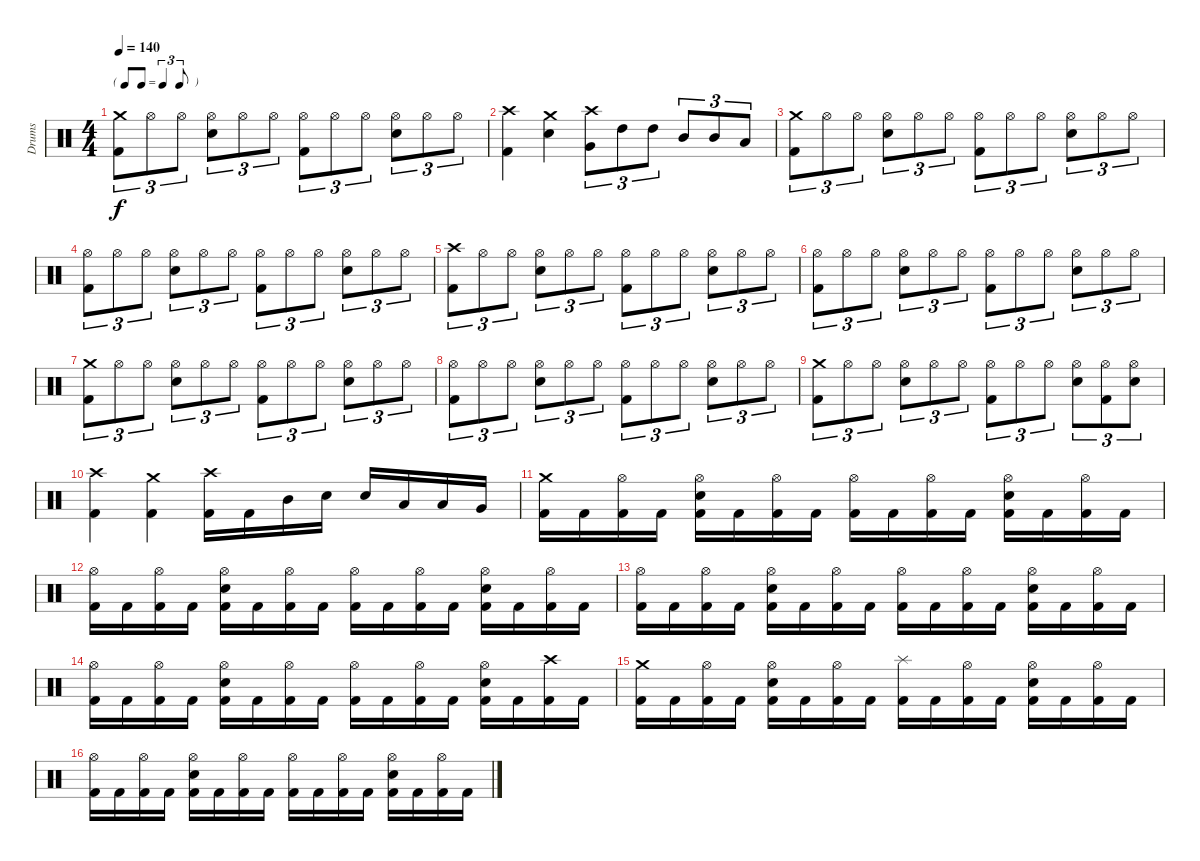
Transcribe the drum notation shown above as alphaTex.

\track ("Drums" "Drums") {instrument percussion}
\staff {score}
\articulation defaults
\ts (4 4)
\tf triplet8th
\tempo 140
\clef neutral
\ks c
("Crash medium (hit)" "Kick (hit) 2").8{tu (3 2) dy f} "Hi-Hat (open)".8{tu (3 2)} "Hi-Hat (open)".8{tu (3 2)} ("Hi-Hat (open)" "Electric Snare (hit)").8{tu (3 2)} "Hi-Hat (open)".8{tu (3 2)} "Hi-Hat (open)".8{tu (3 2)} ("Hi-Hat (open)" "Kick (hit) 2").8{tu (3 2)} "Hi-Hat (open)".8{tu (3 2)} "Hi-Hat (open)".8{tu (3 2)} ("Hi-Hat (open)" "Electric Snare (hit)").8{tu (3 2)} "Hi-Hat (open)".8{tu (3 2)} "Hi-Hat (open)".8{tu (3 2)} |
("Crash high (hit)" "Kick (hit) 2").4 ("Crash medium (hit)" "Electric Snare (hit)").4 ("Crash high (hit)" "Very Low Tom (hit)").8{tu (3 2)} "High Tom (hit)".8{tu (3 2)} "High Tom (hit)".8{tu (3 2)} "Mid Tom (hit)".8{tu (3 2)} "Mid Tom (hit)".8{tu (3 2)} "Low Tom (hit)".8{tu (3 2)} |
("Crash medium (hit)" "Kick (hit) 2").8{tu (3 2)} "Hi-Hat (open)".8{tu (3 2)} "Hi-Hat (open)".8{tu (3 2)} ("Hi-Hat (open)" "Electric Snare (hit)").8{tu (3 2)} "Hi-Hat (open)".8{tu (3 2)} "Hi-Hat (open)".8{tu (3 2)} ("Hi-Hat (open)" "Kick (hit) 2").8{tu (3 2)} "Hi-Hat (open)".8{tu (3 2)} "Hi-Hat (open)".8{tu (3 2)} ("Hi-Hat (open)" "Electric Snare (hit)").8{tu (3 2)} "Hi-Hat (open)".8{tu (3 2)} "Hi-Hat (open)".8{tu (3 2)} |
("Hi-Hat (open)" "Kick (hit) 2").8{tu (3 2)} "Hi-Hat (open)".8{tu (3 2)} "Hi-Hat (open)".8{tu (3 2)} ("Hi-Hat (open)" "Electric Snare (hit)").8{tu (3 2)} "Hi-Hat (open)".8{tu (3 2)} "Hi-Hat (open)".8{tu (3 2)} ("Hi-Hat (open)" "Kick (hit) 2").8{tu (3 2)} "Hi-Hat (open)".8{tu (3 2)} "Hi-Hat (open)".8{tu (3 2)} ("Hi-Hat (open)" "Electric Snare (hit)").8{tu (3 2)} "Hi-Hat (open)".8{tu (3 2)} "Hi-Hat (open)".8{tu (3 2)} |
("Crash high (hit)" "Kick (hit) 2").8{tu (3 2)} "Hi-Hat (open)".8{tu (3 2)} "Hi-Hat (open)".8{tu (3 2)} ("Hi-Hat (open)" "Electric Snare (hit)").8{tu (3 2)} "Hi-Hat (open)".8{tu (3 2)} "Hi-Hat (open)".8{tu (3 2)} ("Hi-Hat (open)" "Kick (hit) 2").8{tu (3 2)} "Hi-Hat (open)".8{tu (3 2)} "Hi-Hat (open)".8{tu (3 2)} ("Hi-Hat (open)" "Electric Snare (hit)").8{tu (3 2)} "Hi-Hat (open)".8{tu (3 2)} "Hi-Hat (open)".8{tu (3 2)} |
("Hi-Hat (open)" "Kick (hit) 2").8{tu (3 2)} "Hi-Hat (open)".8{tu (3 2)} "Hi-Hat (open)".8{tu (3 2)} ("Hi-Hat (open)" "Electric Snare (hit)").8{tu (3 2)} "Hi-Hat (open)".8{tu (3 2)} "Hi-Hat (open)".8{tu (3 2)} ("Hi-Hat (open)" "Kick (hit) 2").8{tu (3 2)} "Hi-Hat (open)".8{tu (3 2)} "Hi-Hat (open)".8{tu (3 2)} ("Hi-Hat (open)" "Electric Snare (hit)").8{tu (3 2)} "Hi-Hat (open)".8{tu (3 2)} "Hi-Hat (open)".8{tu (3 2)} |
("Crash medium (hit)" "Kick (hit) 2").8{tu (3 2)} "Hi-Hat (open)".8{tu (3 2)} "Hi-Hat (open)".8{tu (3 2)} ("Hi-Hat (open)" "Electric Snare (hit)").8{tu (3 2)} "Hi-Hat (open)".8{tu (3 2)} "Hi-Hat (open)".8{tu (3 2)} ("Hi-Hat (open)" "Kick (hit) 2").8{tu (3 2)} "Hi-Hat (open)".8{tu (3 2)} "Hi-Hat (open)".8{tu (3 2)} ("Hi-Hat (open)" "Electric Snare (hit)").8{tu (3 2)} "Hi-Hat (open)".8{tu (3 2)} "Hi-Hat (open)".8{tu (3 2)} |
("Hi-Hat (open)" "Kick (hit) 2").8{tu (3 2)} "Hi-Hat (open)".8{tu (3 2)} "Hi-Hat (open)".8{tu (3 2)} ("Hi-Hat (open)" "Electric Snare (hit)").8{tu (3 2)} "Hi-Hat (open)".8{tu (3 2)} "Hi-Hat (open)".8{tu (3 2)} ("Hi-Hat (open)" "Kick (hit) 2").8{tu (3 2)} "Hi-Hat (open)".8{tu (3 2)} "Hi-Hat (open)".8{tu (3 2)} ("Hi-Hat (open)" "Electric Snare (hit)").8{tu (3 2)} "Hi-Hat (open)".8{tu (3 2)} "Hi-Hat (open)".8{tu (3 2)} |
("Crash medium (hit)" "Kick (hit) 2").8{tu (3 2)} "Hi-Hat (open)".8{tu (3 2)} "Hi-Hat (open)".8{tu (3 2)} ("Hi-Hat (open)" "Electric Snare (hit)").8{tu (3 2)} "Hi-Hat (open)".8{tu (3 2)} "Hi-Hat (open)".8{tu (3 2)} ("Hi-Hat (open)" "Kick (hit) 2").8{tu (3 2)} "Hi-Hat (open)".8{tu (3 2)} "Hi-Hat (open)".8{tu (3 2)} ("Hi-Hat (open)" "Electric Snare (hit)").8{tu (3 2)} ("Hi-Hat (open)" "Kick (hit) 2").8{tu (3 2)} ("Hi-Hat (open)" "Electric Snare (hit)").8{tu (3 2)} |
("Crash high (hit)" "Kick (hit) 2").4 ("Crash medium (hit)" "Kick (hit) 2").4 ("Crash high (hit)" "Kick (hit) 2").16 "Kick (hit) 2".16 "Mid Tom (hit)".16 "Electric Snare (hit)".16 "Electric Snare (hit)".16 "Low Tom (hit)".16 "Low Tom (hit)".16 "Very Low Tom (hit)".16 |
("Crash medium (hit)" "Kick (hit) 2").16 "Kick (hit) 2".16 ("Hi-Hat (open)" "Kick (hit) 2").16 "Kick (hit) 2".16 ("Hi-Hat (open)" "Electric Snare (hit)" "Kick (hit) 2").16 "Kick (hit) 2".16 ("Hi-Hat (open)" "Kick (hit) 2").16 "Kick (hit) 2".16 ("Hi-Hat (open)" "Kick (hit) 2").16 "Kick (hit) 2".16 ("Hi-Hat (open)" "Kick (hit) 2").16 "Kick (hit) 2".16 ("Hi-Hat (open)" "Electric Snare (hit)" "Kick (hit) 2").16 "Kick (hit) 2".16 ("Hi-Hat (open)" "Kick (hit) 2").16 "Kick (hit) 2".16 |
("Hi-Hat (open)" "Kick (hit) 2").16 "Kick (hit) 2".16 ("Hi-Hat (open)" "Kick (hit) 2").16 "Kick (hit) 2".16 ("Hi-Hat (open)" "Electric Snare (hit)" "Kick (hit) 2").16 "Kick (hit) 2".16 ("Hi-Hat (open)" "Kick (hit) 2").16 "Kick (hit) 2".16 ("Hi-Hat (open)" "Kick (hit) 2").16 "Kick (hit) 2".16 ("Hi-Hat (open)" "Kick (hit) 2").16 "Kick (hit) 2".16 ("Hi-Hat (open)" "Electric Snare (hit)" "Kick (hit) 2").16 "Kick (hit) 2".16 ("Hi-Hat (open)" "Kick (hit) 2").16 "Kick (hit) 2".16 |
("Hi-Hat (open)" "Kick (hit) 2").16 "Kick (hit) 2".16 ("Hi-Hat (open)" "Kick (hit) 2").16 "Kick (hit) 2".16 ("Hi-Hat (open)" "Electric Snare (hit)" "Kick (hit) 2").16 "Kick (hit) 2".16 ("Hi-Hat (open)" "Kick (hit) 2").16 "Kick (hit) 2".16 ("Hi-Hat (open)" "Kick (hit) 2").16 "Kick (hit) 2".16 ("Hi-Hat (open)" "Kick (hit) 2").16 "Kick (hit) 2".16 ("Hi-Hat (open)" "Electric Snare (hit)" "Kick (hit) 2").16 "Kick (hit) 2".16 ("Hi-Hat (open)" "Kick (hit) 2").16 "Kick (hit) 2".16 |
("Hi-Hat (open)" "Kick (hit) 2").16 "Kick (hit) 2".16 ("Hi-Hat (open)" "Kick (hit) 2").16 "Kick (hit) 2".16 ("Hi-Hat (open)" "Electric Snare (hit)" "Kick (hit) 2").16 "Kick (hit) 2".16 ("Hi-Hat (open)" "Kick (hit) 2").16 "Kick (hit) 2".16 ("Hi-Hat (open)" "Kick (hit) 2").16 "Kick (hit) 2".16 ("Hi-Hat (open)" "Kick (hit) 2").16 "Kick (hit) 2".16 ("Hi-Hat (open)" "Electric Snare (hit)" "Kick (hit) 2").16 "Kick (hit) 2".16 ("Crash high (hit)" "Kick (hit) 2").16 "Kick (hit) 2".16 |
("Crash medium (hit)" "Kick (hit) 2").16 "Kick (hit) 2".16 ("Hi-Hat (open)" "Kick (hit) 2").16 "Kick (hit) 2".16 ("Hi-Hat (open)" "Electric Snare (hit)" "Kick (hit) 2").16 "Kick (hit) 2".16 ("Hi-Hat (open)" "Kick (hit) 2").16 "Kick (hit) 2".16 ("Splash (hit)" "Kick (hit) 2").16 "Kick (hit) 2".16 ("Hi-Hat (open)" "Kick (hit) 2").16 "Kick (hit) 2".16 ("Hi-Hat (open)" "Electric Snare (hit)" "Kick (hit) 2").16 "Kick (hit) 2".16 ("Hi-Hat (open)" "Kick (hit) 2").16 "Kick (hit) 2".16 |
("Hi-Hat (open)" "Kick (hit) 2").16 "Kick (hit) 2".16 ("Hi-Hat (open)" "Kick (hit) 2").16 "Kick (hit) 2".16 ("Hi-Hat (open)" "Electric Snare (hit)" "Kick (hit) 2").16 "Kick (hit) 2".16 ("Hi-Hat (open)" "Kick (hit) 2").16 "Kick (hit) 2".16 ("Hi-Hat (open)" "Kick (hit) 2").16 "Kick (hit) 2".16 ("Hi-Hat (open)" "Kick (hit) 2").16 "Kick (hit) 2".16 ("Hi-Hat (open)" "Electric Snare (hit)" "Kick (hit) 2").16 "Kick (hit) 2".16 ("Hi-Hat (open)" "Kick (hit) 2").16 "Kick (hit) 2".16
